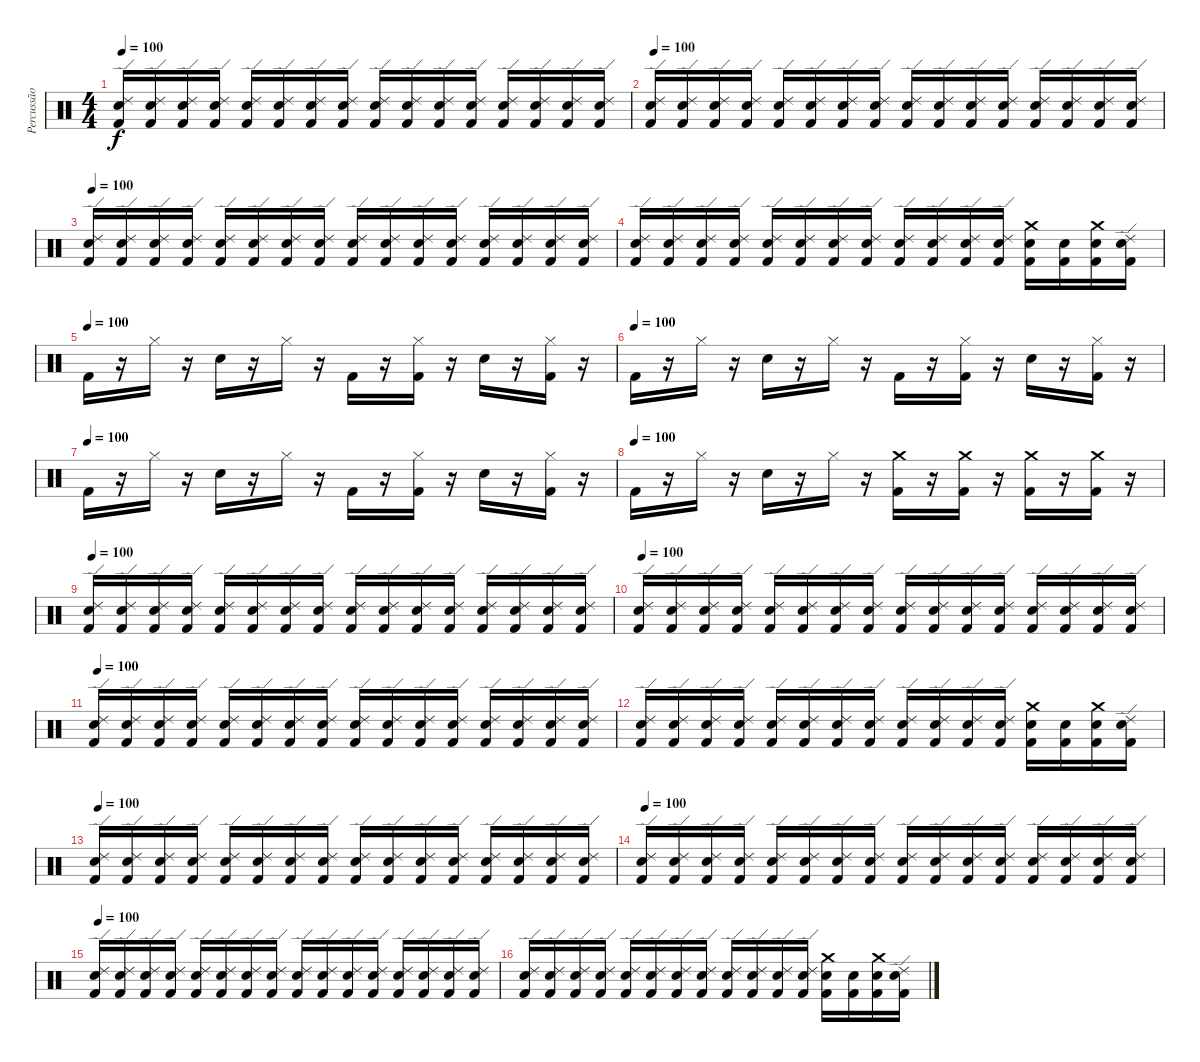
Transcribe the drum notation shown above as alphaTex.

\track ("Percussão" "Percussão") {instrument percussion}
\staff {score}
\articulation defaults
\ts (4 4)
\tempo 100
\clef neutral
\ks c
("Ride (edge) 2" "Electric Snare (hit)" "Kick (hit) 2").16{dy f} ("Ride (edge) 2" "Electric Snare (hit)" "Kick (hit) 2").16 ("Ride (edge) 2" "Electric Snare (hit)" "Kick (hit) 2").16 ("Ride (edge) 2" "Electric Snare (hit)" "Kick (hit) 2").16 ("Ride (edge) 2" "Electric Snare (hit)" "Kick (hit) 2").16 ("Ride (edge) 2" "Electric Snare (hit)" "Kick (hit) 2").16 ("Ride (edge) 2" "Electric Snare (hit)" "Kick (hit) 2").16 ("Ride (edge) 2" "Electric Snare (hit)" "Kick (hit) 2").16 ("Ride (edge) 2" "Electric Snare (hit)" "Kick (hit) 2").16 ("Ride (edge) 2" "Electric Snare (hit)" "Kick (hit) 2").16 ("Ride (edge) 2" "Electric Snare (hit)" "Kick (hit) 2").16 ("Ride (edge) 2" "Electric Snare (hit)" "Kick (hit) 2").16 ("Ride (edge) 2" "Electric Snare (hit)" "Kick (hit) 2").16 ("Ride (edge) 2" "Electric Snare (hit)" "Kick (hit) 2").16 ("Ride (edge) 2" "Electric Snare (hit)" "Kick (hit) 2").16 ("Ride (edge) 2" "Electric Snare (hit)" "Kick (hit) 2").16 |
\tempo 100
("Ride (edge) 2" "Electric Snare (hit)" "Kick (hit) 2").16 ("Ride (edge) 2" "Electric Snare (hit)" "Kick (hit) 2").16 ("Ride (edge) 2" "Electric Snare (hit)" "Kick (hit) 2").16 ("Ride (edge) 2" "Electric Snare (hit)" "Kick (hit) 2").16 ("Ride (edge) 2" "Electric Snare (hit)" "Kick (hit) 2").16 ("Ride (edge) 2" "Electric Snare (hit)" "Kick (hit) 2").16 ("Ride (edge) 2" "Electric Snare (hit)" "Kick (hit) 2").16 ("Ride (edge) 2" "Electric Snare (hit)" "Kick (hit) 2").16 ("Ride (edge) 2" "Electric Snare (hit)" "Kick (hit) 2").16 ("Ride (edge) 2" "Electric Snare (hit)" "Kick (hit) 2").16 ("Ride (edge) 2" "Electric Snare (hit)" "Kick (hit) 2").16 ("Ride (edge) 2" "Electric Snare (hit)" "Kick (hit) 2").16 ("Ride (edge) 2" "Electric Snare (hit)" "Kick (hit) 2").16 ("Ride (edge) 2" "Electric Snare (hit)" "Kick (hit) 2").16 ("Ride (edge) 2" "Electric Snare (hit)" "Kick (hit) 2").16 ("Ride (edge) 2" "Electric Snare (hit)" "Kick (hit) 2").16 |
\tempo 100
("Ride (edge) 2" "Electric Snare (hit)" "Kick (hit) 2").16 ("Ride (edge) 2" "Electric Snare (hit)" "Kick (hit) 2").16 ("Ride (edge) 2" "Electric Snare (hit)" "Kick (hit) 2").16 ("Ride (edge) 2" "Electric Snare (hit)" "Kick (hit) 2").16 ("Ride (edge) 2" "Electric Snare (hit)" "Kick (hit) 2").16 ("Ride (edge) 2" "Electric Snare (hit)" "Kick (hit) 2").16 ("Ride (edge) 2" "Electric Snare (hit)" "Kick (hit) 2").16 ("Ride (edge) 2" "Electric Snare (hit)" "Kick (hit) 2").16 ("Ride (edge) 2" "Electric Snare (hit)" "Kick (hit) 2").16 ("Ride (edge) 2" "Electric Snare (hit)" "Kick (hit) 2").16 ("Ride (edge) 2" "Electric Snare (hit)" "Kick (hit) 2").16 ("Ride (edge) 2" "Electric Snare (hit)" "Kick (hit) 2").16 ("Ride (edge) 2" "Electric Snare (hit)" "Kick (hit) 2").16 ("Ride (edge) 2" "Electric Snare (hit)" "Kick (hit) 2").16 ("Ride (edge) 2" "Electric Snare (hit)" "Kick (hit) 2").16 ("Ride (edge) 2" "Electric Snare (hit)" "Kick (hit) 2").16 |
("Ride (edge) 2" "Electric Snare (hit)" "Kick (hit) 2").16 ("Ride (edge) 2" "Electric Snare (hit)" "Kick (hit) 2").16 ("Ride (edge) 2" "Electric Snare (hit)" "Kick (hit) 2").16 ("Ride (edge) 2" "Electric Snare (hit)" "Kick (hit) 2").16 ("Ride (edge) 2" "Electric Snare (hit)" "Kick (hit) 2").16 ("Ride (edge) 2" "Electric Snare (hit)" "Kick (hit) 2").16 ("Ride (edge) 2" "Electric Snare (hit)" "Kick (hit) 2").16 ("Ride (edge) 2" "Electric Snare (hit)" "Kick (hit) 2").16 ("Ride (edge) 2" "Electric Snare (hit)" "Kick (hit) 2").16 ("Ride (edge) 2" "Electric Snare (hit)" "Kick (hit) 2").16 ("Ride (edge) 2" "Electric Snare (hit)" "Kick (hit) 2").16 ("Ride (edge) 2" "Electric Snare (hit)" "Kick (hit) 2").16 ("Crash medium (hit)" "Electric Snare (hit)" "Kick (hit) 2").16 ("Electric Snare (hit)" "Kick (hit) 2").16 ("Crash medium (hit)" "Electric Snare (hit)" "Kick (hit) 2").16 ("Ride (edge) 2" "Electric Snare (hit)" "Kick (hit) 2").16 |
\tempo (100)
"Kick (hit) 2".16 r.16 "Hi-Hat (closed)".16 r.16 "Electric Snare (hit)".16 r.16 "Hi-Hat (closed)".16 r.16 "Kick (hit) 2".16 r.16 ("Hi-Hat (closed)" "Kick (hit) 2").16 r.16 "Electric Snare (hit)".16 r.16 ("Hi-Hat (closed)" "Kick (hit) 2").16 r.16 |
\tempo (100)
"Kick (hit) 2".16 r.16 "Hi-Hat (closed)".16 r.16 "Electric Snare (hit)".16 r.16 "Hi-Hat (closed)".16 r.16 "Kick (hit) 2".16 r.16 ("Hi-Hat (closed)" "Kick (hit) 2").16 r.16 "Electric Snare (hit)".16 r.16 ("Hi-Hat (closed)" "Kick (hit) 2").16 r.16 |
\tempo (100)
"Kick (hit) 2".16 r.16 "Hi-Hat (closed)".16 r.16 "Electric Snare (hit)".16 r.16 "Hi-Hat (closed)".16 r.16 "Kick (hit) 2".16 r.16 ("Hi-Hat (closed)" "Kick (hit) 2").16 r.16 "Electric Snare (hit)".16 r.16 ("Hi-Hat (closed)" "Kick (hit) 2").16 r.16 |
\tempo (100)
"Kick (hit) 2".16 r.16 "Hi-Hat (closed)".16 r.16 "Electric Snare (hit)".16 r.16 "Hi-Hat (closed)".16 r.16 ("Crash medium (hit)" "Kick (hit) 2").16 r.16 ("Crash medium (hit)" "Kick (hit) 2").16 r.16 ("Crash medium (hit)" "Kick (hit) 2").16 r.16 ("Crash medium (hit)" "Kick (hit) 2").16 r.16 |
\tempo 100
("Ride (edge) 2" "Electric Snare (hit)" "Kick (hit) 2").16 ("Ride (edge) 2" "Electric Snare (hit)" "Kick (hit) 2").16 ("Ride (edge) 2" "Electric Snare (hit)" "Kick (hit) 2").16 ("Ride (edge) 2" "Electric Snare (hit)" "Kick (hit) 2").16 ("Ride (edge) 2" "Electric Snare (hit)" "Kick (hit) 2").16 ("Ride (edge) 2" "Electric Snare (hit)" "Kick (hit) 2").16 ("Ride (edge) 2" "Electric Snare (hit)" "Kick (hit) 2").16 ("Ride (edge) 2" "Electric Snare (hit)" "Kick (hit) 2").16 ("Ride (edge) 2" "Electric Snare (hit)" "Kick (hit) 2").16 ("Ride (edge) 2" "Electric Snare (hit)" "Kick (hit) 2").16 ("Ride (edge) 2" "Electric Snare (hit)" "Kick (hit) 2").16 ("Ride (edge) 2" "Electric Snare (hit)" "Kick (hit) 2").16 ("Ride (edge) 2" "Electric Snare (hit)" "Kick (hit) 2").16 ("Ride (edge) 2" "Electric Snare (hit)" "Kick (hit) 2").16 ("Ride (edge) 2" "Electric Snare (hit)" "Kick (hit) 2").16 ("Ride (edge) 2" "Electric Snare (hit)" "Kick (hit) 2").16 |
\tempo 100
("Ride (edge) 2" "Electric Snare (hit)" "Kick (hit) 2").16 ("Ride (edge) 2" "Electric Snare (hit)" "Kick (hit) 2").16 ("Ride (edge) 2" "Electric Snare (hit)" "Kick (hit) 2").16 ("Ride (edge) 2" "Electric Snare (hit)" "Kick (hit) 2").16 ("Ride (edge) 2" "Electric Snare (hit)" "Kick (hit) 2").16 ("Ride (edge) 2" "Electric Snare (hit)" "Kick (hit) 2").16 ("Ride (edge) 2" "Electric Snare (hit)" "Kick (hit) 2").16 ("Ride (edge) 2" "Electric Snare (hit)" "Kick (hit) 2").16 ("Ride (edge) 2" "Electric Snare (hit)" "Kick (hit) 2").16 ("Ride (edge) 2" "Electric Snare (hit)" "Kick (hit) 2").16 ("Ride (edge) 2" "Electric Snare (hit)" "Kick (hit) 2").16 ("Ride (edge) 2" "Electric Snare (hit)" "Kick (hit) 2").16 ("Ride (edge) 2" "Electric Snare (hit)" "Kick (hit) 2").16 ("Ride (edge) 2" "Electric Snare (hit)" "Kick (hit) 2").16 ("Ride (edge) 2" "Electric Snare (hit)" "Kick (hit) 2").16 ("Ride (edge) 2" "Electric Snare (hit)" "Kick (hit) 2").16 |
\tempo 100
("Ride (edge) 2" "Electric Snare (hit)" "Kick (hit) 2").16 ("Ride (edge) 2" "Electric Snare (hit)" "Kick (hit) 2").16 ("Ride (edge) 2" "Electric Snare (hit)" "Kick (hit) 2").16 ("Ride (edge) 2" "Electric Snare (hit)" "Kick (hit) 2").16 ("Ride (edge) 2" "Electric Snare (hit)" "Kick (hit) 2").16 ("Ride (edge) 2" "Electric Snare (hit)" "Kick (hit) 2").16 ("Ride (edge) 2" "Electric Snare (hit)" "Kick (hit) 2").16 ("Ride (edge) 2" "Electric Snare (hit)" "Kick (hit) 2").16 ("Ride (edge) 2" "Electric Snare (hit)" "Kick (hit) 2").16 ("Ride (edge) 2" "Electric Snare (hit)" "Kick (hit) 2").16 ("Ride (edge) 2" "Electric Snare (hit)" "Kick (hit) 2").16 ("Ride (edge) 2" "Electric Snare (hit)" "Kick (hit) 2").16 ("Ride (edge) 2" "Electric Snare (hit)" "Kick (hit) 2").16 ("Ride (edge) 2" "Electric Snare (hit)" "Kick (hit) 2").16 ("Ride (edge) 2" "Electric Snare (hit)" "Kick (hit) 2").16 ("Ride (edge) 2" "Electric Snare (hit)" "Kick (hit) 2").16 |
("Ride (edge) 2" "Electric Snare (hit)" "Kick (hit) 2").16 ("Ride (edge) 2" "Electric Snare (hit)" "Kick (hit) 2").16 ("Ride (edge) 2" "Electric Snare (hit)" "Kick (hit) 2").16 ("Ride (edge) 2" "Electric Snare (hit)" "Kick (hit) 2").16 ("Ride (edge) 2" "Electric Snare (hit)" "Kick (hit) 2").16 ("Ride (edge) 2" "Electric Snare (hit)" "Kick (hit) 2").16 ("Ride (edge) 2" "Electric Snare (hit)" "Kick (hit) 2").16 ("Ride (edge) 2" "Electric Snare (hit)" "Kick (hit) 2").16 ("Ride (edge) 2" "Electric Snare (hit)" "Kick (hit) 2").16 ("Ride (edge) 2" "Electric Snare (hit)" "Kick (hit) 2").16 ("Ride (edge) 2" "Electric Snare (hit)" "Kick (hit) 2").16 ("Ride (edge) 2" "Electric Snare (hit)" "Kick (hit) 2").16 ("Crash medium (hit)" "Electric Snare (hit)" "Kick (hit) 2").16 ("Electric Snare (hit)" "Kick (hit) 2").16 ("Crash medium (hit)" "Electric Snare (hit)" "Kick (hit) 2").16 ("Ride (edge) 2" "Electric Snare (hit)" "Kick (hit) 2").16 |
\tempo 100
("Ride (edge) 2" "Electric Snare (hit)" "Kick (hit) 2").16 ("Ride (edge) 2" "Electric Snare (hit)" "Kick (hit) 2").16 ("Ride (edge) 2" "Electric Snare (hit)" "Kick (hit) 2").16 ("Ride (edge) 2" "Electric Snare (hit)" "Kick (hit) 2").16 ("Ride (edge) 2" "Electric Snare (hit)" "Kick (hit) 2").16 ("Ride (edge) 2" "Electric Snare (hit)" "Kick (hit) 2").16 ("Ride (edge) 2" "Electric Snare (hit)" "Kick (hit) 2").16 ("Ride (edge) 2" "Electric Snare (hit)" "Kick (hit) 2").16 ("Ride (edge) 2" "Electric Snare (hit)" "Kick (hit) 2").16 ("Ride (edge) 2" "Electric Snare (hit)" "Kick (hit) 2").16 ("Ride (edge) 2" "Electric Snare (hit)" "Kick (hit) 2").16 ("Ride (edge) 2" "Electric Snare (hit)" "Kick (hit) 2").16 ("Ride (edge) 2" "Electric Snare (hit)" "Kick (hit) 2").16 ("Ride (edge) 2" "Electric Snare (hit)" "Kick (hit) 2").16 ("Ride (edge) 2" "Electric Snare (hit)" "Kick (hit) 2").16 ("Ride (edge) 2" "Electric Snare (hit)" "Kick (hit) 2").16 |
\tempo 100
("Ride (edge) 2" "Electric Snare (hit)" "Kick (hit) 2").16 ("Ride (edge) 2" "Electric Snare (hit)" "Kick (hit) 2").16 ("Ride (edge) 2" "Electric Snare (hit)" "Kick (hit) 2").16 ("Ride (edge) 2" "Electric Snare (hit)" "Kick (hit) 2").16 ("Ride (edge) 2" "Electric Snare (hit)" "Kick (hit) 2").16 ("Ride (edge) 2" "Electric Snare (hit)" "Kick (hit) 2").16 ("Ride (edge) 2" "Electric Snare (hit)" "Kick (hit) 2").16 ("Ride (edge) 2" "Electric Snare (hit)" "Kick (hit) 2").16 ("Ride (edge) 2" "Electric Snare (hit)" "Kick (hit) 2").16 ("Ride (edge) 2" "Electric Snare (hit)" "Kick (hit) 2").16 ("Ride (edge) 2" "Electric Snare (hit)" "Kick (hit) 2").16 ("Ride (edge) 2" "Electric Snare (hit)" "Kick (hit) 2").16 ("Ride (edge) 2" "Electric Snare (hit)" "Kick (hit) 2").16 ("Ride (edge) 2" "Electric Snare (hit)" "Kick (hit) 2").16 ("Ride (edge) 2" "Electric Snare (hit)" "Kick (hit) 2").16 ("Ride (edge) 2" "Electric Snare (hit)" "Kick (hit) 2").16 |
\tempo 100
("Ride (edge) 2" "Electric Snare (hit)" "Kick (hit) 2").16 ("Ride (edge) 2" "Electric Snare (hit)" "Kick (hit) 2").16 ("Ride (edge) 2" "Electric Snare (hit)" "Kick (hit) 2").16 ("Ride (edge) 2" "Electric Snare (hit)" "Kick (hit) 2").16 ("Ride (edge) 2" "Electric Snare (hit)" "Kick (hit) 2").16 ("Ride (edge) 2" "Electric Snare (hit)" "Kick (hit) 2").16 ("Ride (edge) 2" "Electric Snare (hit)" "Kick (hit) 2").16 ("Ride (edge) 2" "Electric Snare (hit)" "Kick (hit) 2").16 ("Ride (edge) 2" "Electric Snare (hit)" "Kick (hit) 2").16 ("Ride (edge) 2" "Electric Snare (hit)" "Kick (hit) 2").16 ("Ride (edge) 2" "Electric Snare (hit)" "Kick (hit) 2").16 ("Ride (edge) 2" "Electric Snare (hit)" "Kick (hit) 2").16 ("Ride (edge) 2" "Electric Snare (hit)" "Kick (hit) 2").16 ("Ride (edge) 2" "Electric Snare (hit)" "Kick (hit) 2").16 ("Ride (edge) 2" "Electric Snare (hit)" "Kick (hit) 2").16 ("Ride (edge) 2" "Electric Snare (hit)" "Kick (hit) 2").16 |
("Ride (edge) 2" "Electric Snare (hit)" "Kick (hit) 2").16 ("Ride (edge) 2" "Electric Snare (hit)" "Kick (hit) 2").16 ("Ride (edge) 2" "Electric Snare (hit)" "Kick (hit) 2").16 ("Ride (edge) 2" "Electric Snare (hit)" "Kick (hit) 2").16 ("Ride (edge) 2" "Electric Snare (hit)" "Kick (hit) 2").16 ("Ride (edge) 2" "Electric Snare (hit)" "Kick (hit) 2").16 ("Ride (edge) 2" "Electric Snare (hit)" "Kick (hit) 2").16 ("Ride (edge) 2" "Electric Snare (hit)" "Kick (hit) 2").16 ("Ride (edge) 2" "Electric Snare (hit)" "Kick (hit) 2").16 ("Ride (edge) 2" "Electric Snare (hit)" "Kick (hit) 2").16 ("Ride (edge) 2" "Electric Snare (hit)" "Kick (hit) 2").16 ("Ride (edge) 2" "Electric Snare (hit)" "Kick (hit) 2").16 ("Crash medium (hit)" "Electric Snare (hit)" "Kick (hit) 2").16 ("Electric Snare (hit)" "Kick (hit) 2").16 ("Crash medium (hit)" "Electric Snare (hit)" "Kick (hit) 2").16 ("Ride (edge) 2" "Electric Snare (hit)" "Kick (hit) 2").16
